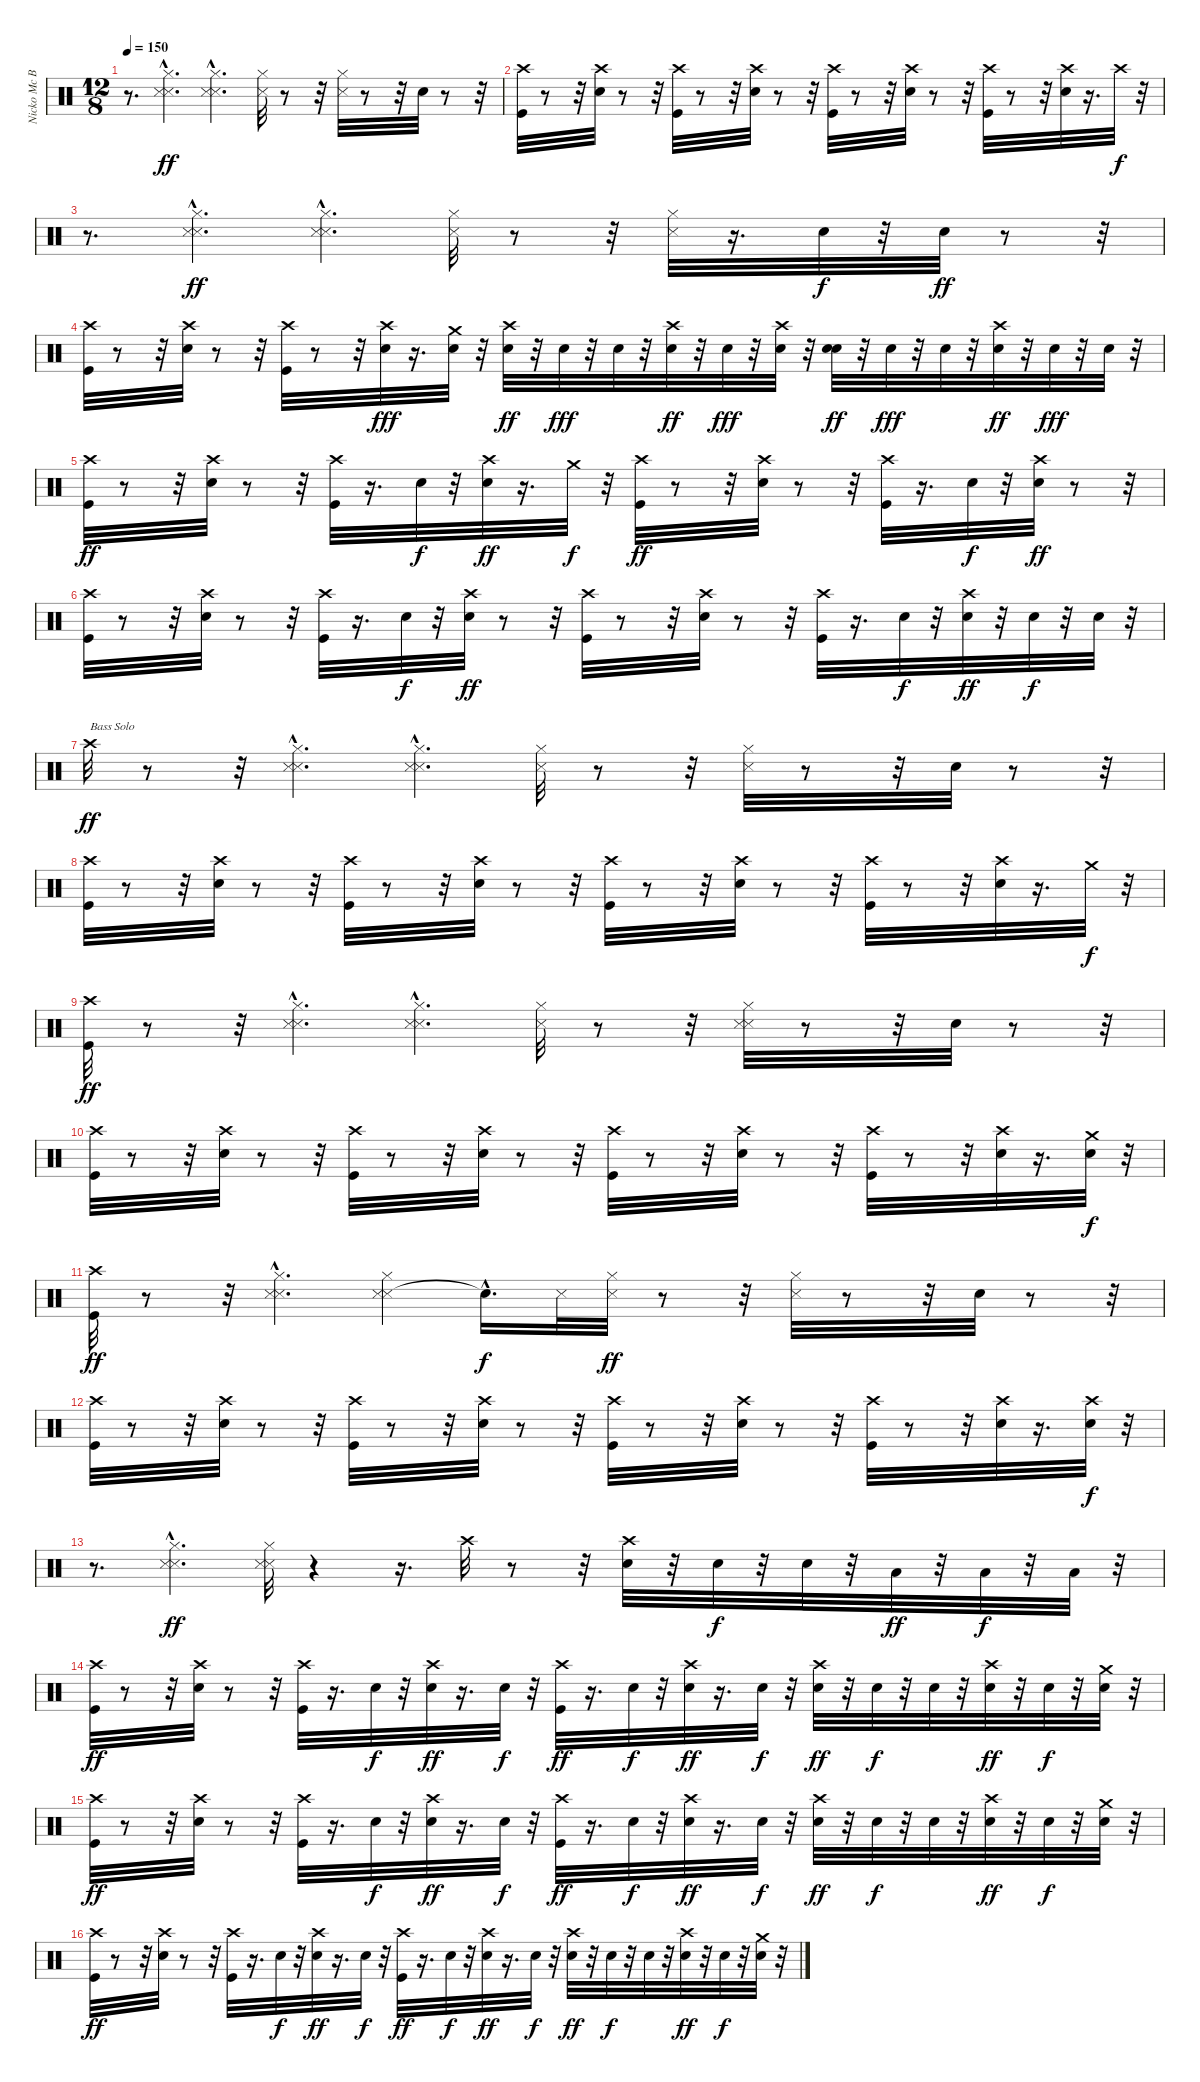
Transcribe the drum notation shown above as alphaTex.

\track ("Nicko Mc Brain  ( drums )" "Nicko Mc B") {instrument percussion}
\staff {score}
\articulation defaults
\ts (12 8)
\tempo 150
\clef neutral
\ks c
r.8{d dy f} ("Metronome (hit)"{hac} "Metronome (hit)" "Hi-Hat (closed)").4{d dy ff} ("Metronome (hit)"{hac} "Metronome (hit)" "Hi-Hat (closed)").4{d} ("Hi-Hat (closed)" "Metronome (hit)").32 r.8 r.32 ("Metronome (hit)" "Hi-Hat (closed)").32 r.8 r.32 "Snare (hit) 2".32 r.8 r.32 |
("Crash high (hit)" "Kick (hit)").32 r.8 r.32 ("Crash high (hit)" "Snare (hit) 2").32 r.8 r.32 ("Crash high (hit)" "Kick (hit)").32 r.8 r.32 ("Crash high (hit)" "Snare (hit) 2").32 r.8 r.32 ("Crash high (hit)" "Kick (hit)").32 r.8 r.32 ("Crash high (hit)" "Snare (hit) 2").32 r.8 r.32 ("Crash high (hit)" "Kick (hit)").32 r.8 r.32 ("Crash high (hit)" "Snare (hit) 2").32 r.16{d} "Crash high (hit)".32{dy f} r.32 |
r.8{d} ("Metronome (hit)"{hac} "Metronome (hit)" "Hi-Hat (closed)").4{d dy ff} ("Metronome (hit)"{hac} "Metronome (hit)" "Hi-Hat (closed)").4{d} ("Metronome (hit)" "Hi-Hat (closed)").32 r.8 r.32 ("Hi-Hat (closed)" "Metronome (hit)").32 r.16{d} "Snare (hit) 2".32{dy f} r.32 "Snare (hit) 2".32{dy ff} r.8 r.32 |
("Crash high (hit)" "Kick (hit)").32 r.8 r.32 ("Crash high (hit)" "Snare (hit) 2").32 r.8 r.32 ("Crash high (hit)" "Kick (hit)").32 r.8 r.32 ("Crash high (hit)" "Snare (hit) 2").32{dy fff} r.16{d} ("Crash medium (hit)" "Snare (hit) 2").32 r.32 ("Electric Snare (hit)" "Crash high (hit)").32{dy ff} r.32 "Snare (hit) 2".32{dy fff} r.32 "Snare (hit) 2".32 r.32 ("Snare (hit) 2" "Crash high (hit)").32{dy ff} r.32 "Snare (hit) 2".32{dy fff} r.32 ("Snare (hit) 2" "Crash high (hit)").32 r.32 ("Snare (hit) 2" "Electric Snare (hit)").32{dy ff} r.32 "Snare (hit) 2".32{dy fff} r.32 "Snare (hit) 2".32 r.32 ("Snare (hit) 2" "Crash high (hit)").32{dy ff} r.32 "Snare (hit) 2".32{dy fff} r.32 "Snare (hit) 2".32 r.32 |
("Kick (hit)" "Crash high (hit)").32{dy ff} r.8 r.32 ("Snare (hit) 2" "Crash high (hit)").32 r.8 r.32 ("Kick (hit)" "Crash high (hit)").32 r.16{d} "Snare (hit) 2".32{dy f} r.32 ("Snare (hit) 2" "Crash high (hit)").32{dy ff} r.16{d} "Crash medium (hit)".32{dy f} r.32 ("Kick (hit)" "Crash high (hit)").32{dy ff} r.8 r.32 ("Snare (hit) 2" "Crash high (hit)").32 r.8 r.32 ("Kick (hit)" "Crash high (hit)").32 r.16{d} "Snare (hit) 2".32{dy f} r.32 ("Snare (hit) 2" "Crash high (hit)").32{dy ff} r.8 r.32 |
("Kick (hit)" "Crash high (hit)").32 r.8 r.32 ("Snare (hit) 2" "Crash high (hit)").32 r.8 r.32 ("Kick (hit)" "Crash high (hit)").32 r.16{d} "Snare (hit) 2".32{dy f} r.32 ("Snare (hit) 2" "Crash high (hit)").32{dy ff} r.8 r.32 ("Kick (hit)" "Crash high (hit)").32 r.8 r.32 ("Snare (hit) 2" "Crash high (hit)").32 r.8 r.32 ("Kick (hit)" "Crash high (hit)").32 r.16{d} "Electric Snare (hit)".32{dy f} r.32 ("Snare (hit) 2" "Crash high (hit)").32{dy ff} r.32 "Snare (hit) 2".32{dy f} r.32 "Snare (hit) 2".32 r.32 |
"Crash high (hit)".32{txt "Bass Solo" dy ff} r.8 r.32 ("Metronome (hit)"{hac} "Metronome (hit)" "Hi-Hat (closed)").4{d} ("Metronome (hit)"{hac} "Metronome (hit)" "Hi-Hat (closed)").4{d} ("Metronome (hit)" "Hi-Hat (closed)").32 r.8 r.32 ("Metronome (hit)" "Hi-Hat (closed)").32 r.8 r.32 "Snare (hit) 2".32 r.8 r.32 |
("Crash high (hit)" "Kick (hit)").32 r.8 r.32 ("Crash high (hit)" "Snare (hit) 2").32 r.8 r.32 ("Crash high (hit)" "Kick (hit)").32 r.8 r.32 ("Crash high (hit)" "Snare (hit) 2").32 r.8 r.32 ("Crash high (hit)" "Kick (hit)").32 r.8 r.32 ("Crash high (hit)" "Snare (hit) 2").32 r.8 r.32 ("Crash high (hit)" "Kick (hit)").32 r.8 r.32 ("Crash high (hit)" "Snare (hit) 2").32 r.16{d} "Crash medium (hit)".32{dy f} r.32 |
("Kick (hit)" "Crash high (hit)").32{dy ff} r.8 r.32 ("Metronome (hit)"{hac} "Metronome (hit)" "Hi-Hat (closed)").4{d} ("Metronome (hit)"{hac} "Metronome (hit)" "Hi-Hat (closed)").4{d} ("Metronome (hit)" "Hi-Hat (closed)").32 r.8 r.32 ("Metronome (hit)" "Hi-Hat (closed)" "Metronome (hit)").32 r.8 r.32 "Snare (hit) 2".32 r.8 r.32 |
("Crash high (hit)" "Kick (hit)").32 r.8 r.32 ("Crash high (hit)" "Snare (hit) 2").32 r.8 r.32 ("Crash high (hit)" "Kick (hit)").32 r.8 r.32 ("Crash high (hit)" "Snare (hit) 2").32 r.8 r.32 ("Crash high (hit)" "Kick (hit)").32 r.8 r.32 ("Crash high (hit)" "Snare (hit) 2").32 r.8 r.32 ("Crash high (hit)" "Kick (hit)").32 r.8 r.32 ("Crash high (hit)" "Snare (hit) 2").32 r.16{d} ("Crash medium (hit)" "Snare (hit) 2").32{dy f} r.32 |
("Kick (hit)" "Crash high (hit)").32{dy ff} r.8 r.32 ("Metronome (hit)"{hac} "Metronome (hit)" "Hi-Hat (closed)").4{d} ("Metronome (hit)" "Metronome (hit)" "Hi-Hat (closed)").4 "Snare (hit)"{hac t}.16{d dy f} "Metronome (hit)".32 ("Metronome (hit)" "Hi-Hat (closed)").32{dy ff} r.8 r.32 ("Metronome (hit)" "Hi-Hat (closed)").32 r.8 r.32 "Snare (hit) 2".32 r.8 r.32 |
("Crash high (hit)" "Kick (hit)").32 r.8 r.32 ("Crash high (hit)" "Snare (hit) 2").32 r.8 r.32 ("Crash high (hit)" "Kick (hit)").32 r.8 r.32 ("Crash high (hit)" "Snare (hit) 2").32 r.8 r.32 ("Crash high (hit)" "Kick (hit)").32 r.8 r.32 ("Crash high (hit)" "Snare (hit) 2").32 r.8 r.32 ("Crash high (hit)" "Kick (hit)").32 r.8 r.32 ("Crash high (hit)" "Snare (hit) 2").32 r.16{d} ("Snare (hit) 2" "Crash high (hit)").32{dy f} r.32 |
r.8{d} ("Metronome (hit)"{hac} "Metronome (hit)" "Hi-Hat (closed)").4{d dy ff} ("Metronome (hit)" "Hi-Hat (closed)" "Metronome (hit)").32 r.4 r.16{d} "Crash high (hit)".32 r.8 r.32 ("Snare (hit) 2" "Crash high (hit)").32 r.32 "Snare (hit) 2".32{dy f} r.32 "Snare (hit) 2".32 r.32 "Low Tom (hit)".32{dy ff} r.32 "Low Tom (hit)".32{dy f} r.32 "Low Tom (hit)".32 r.32 |
("Crash high (hit)" "Kick (hit)").32{dy ff} r.8 r.32 ("Crash high (hit)" "Snare (hit) 2").32 r.8 r.32 ("Crash high (hit)" "Kick (hit)").32 r.16{d} "Snare (hit) 2".32{dy f} r.32 ("Crash high (hit)" "Snare (hit) 2").32{dy ff} r.16{d} "Snare (hit) 2".32{dy f} r.32 ("Crash high (hit)" "Kick (hit)").32{dy ff} r.16{d} "Snare (hit) 2".32{dy f} r.32 ("Crash high (hit)" "Snare (hit) 2").32{dy ff} r.16{d} "Snare (hit) 2".32{dy f} r.32 ("Snare (hit) 2" "Crash high (hit)").32{dy ff} r.32 "Snare (hit) 2".32{dy f} r.32 "Snare (hit) 2".32 r.32 ("Crash high (hit)" "Snare (hit) 2").32{dy ff} r.32 "Snare (hit) 2".32{dy f} r.32 ("Crash medium (hit)" "Snare (hit) 2").32 r.32 |
("Crash high (hit)" "Kick (hit)").32{dy ff} r.8 r.32 ("Crash high (hit)" "Snare (hit) 2").32 r.8 r.32 ("Crash high (hit)" "Kick (hit)").32 r.16{d} "Snare (hit) 2".32{dy f} r.32 ("Crash high (hit)" "Snare (hit) 2").32{dy ff} r.16{d} "Snare (hit) 2".32{dy f} r.32 ("Crash high (hit)" "Kick (hit)").32{dy ff} r.16{d} "Snare (hit) 2".32{dy f} r.32 ("Crash high (hit)" "Snare (hit) 2").32{dy ff} r.16{d} "Snare (hit) 2".32{dy f} r.32 ("Snare (hit) 2" "Crash high (hit)").32{dy ff} r.32 "Snare (hit) 2".32{dy f} r.32 "Snare (hit) 2".32 r.32 ("Crash high (hit)" "Snare (hit) 2").32{dy ff} r.32 "Snare (hit) 2".32{dy f} r.32 ("Crash medium (hit)" "Snare (hit) 2").32 r.32 |
("Crash high (hit)" "Kick (hit)").32{dy ff} r.8 r.32 ("Crash high (hit)" "Snare (hit) 2").32 r.8 r.32 ("Crash high (hit)" "Kick (hit)").32 r.16{d} "Snare (hit) 2".32{dy f} r.32 ("Crash high (hit)" "Snare (hit) 2").32{dy ff} r.16{d} "Snare (hit) 2".32{dy f} r.32 ("Crash high (hit)" "Kick (hit)").32{dy ff} r.16{d} "Snare (hit) 2".32{dy f} r.32 ("Crash high (hit)" "Snare (hit) 2").32{dy ff} r.16{d} "Snare (hit) 2".32{dy f} r.32 ("Snare (hit) 2" "Crash high (hit)").32{dy ff} r.32 "Snare (hit) 2".32{dy f} r.32 "Snare (hit) 2".32 r.32 ("Crash high (hit)" "Snare (hit) 2").32{dy ff} r.32 "Snare (hit) 2".32{dy f} r.32 ("Crash medium (hit)" "Snare (hit) 2").32 r.32
